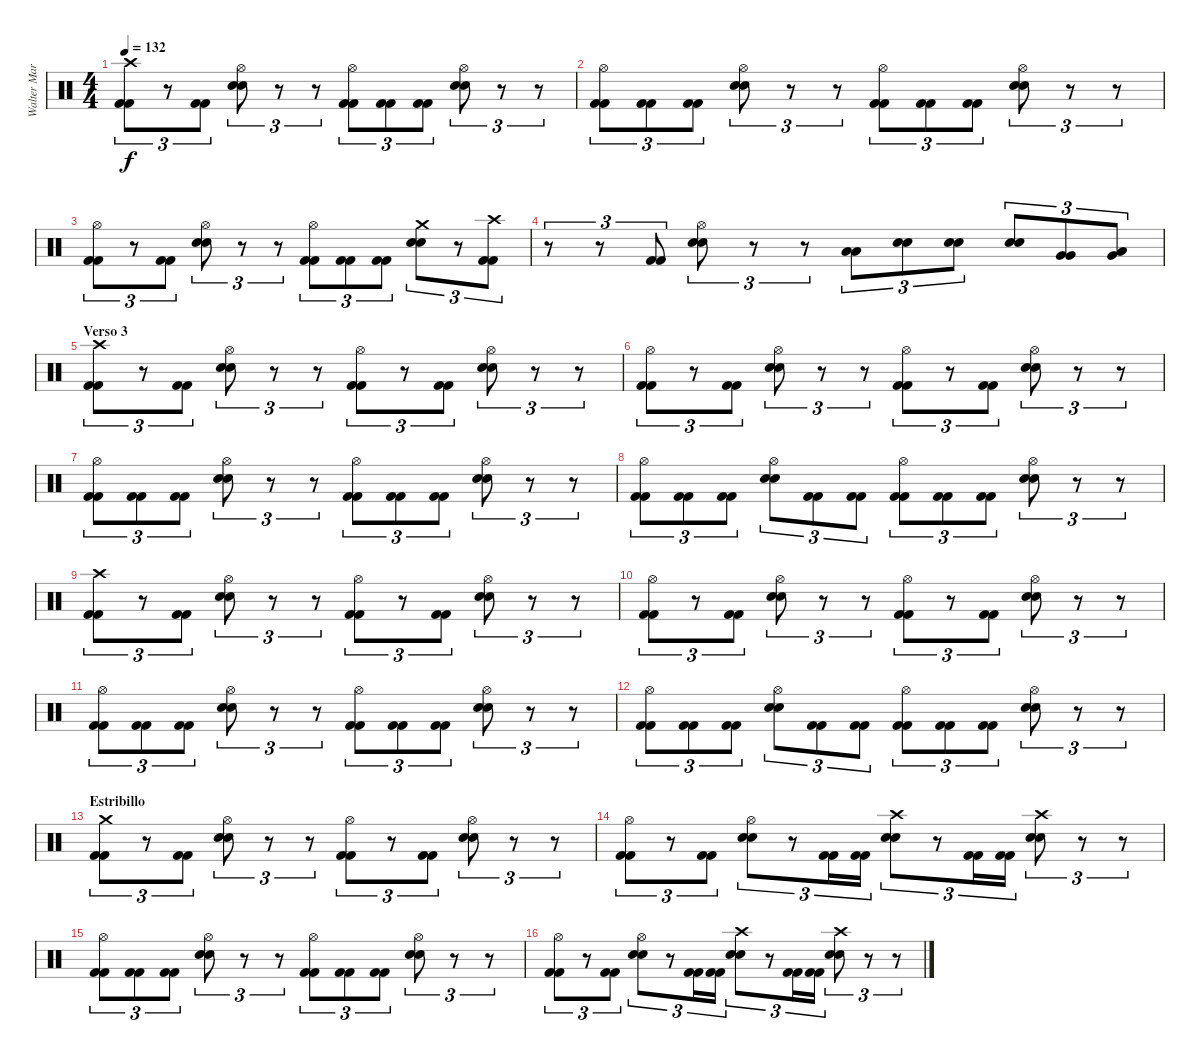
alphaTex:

\track ("Walter Martinez (bateria)" "Walter Mar") {instrument percussion}
\staff {score}
\articulation defaults
\ts (4 4)
\tempo 132
\clef neutral
\ks c
("Crash high (hit)" "Kick (hit) 2" "Kick (hit) 2").8{tu (3 2) dy f} r.8{tu (3 2)} ("Kick (hit) 2" "Kick (hit) 2").8{tu (3 2)} ("Hi-Hat (open)" "Snare (hit) 2" "Snare (hit) 2").8{tu (3 2)} r.8{tu (3 2)} r.8{tu (3 2)} ("Hi-Hat (open)" "Kick (hit) 2" "Kick (hit) 2").8{tu (3 2)} ("Kick (hit) 2" "Kick (hit) 2").8{tu (3 2)} ("Kick (hit) 2" "Kick (hit) 2").8{tu (3 2)} ("Hi-Hat (open)" "Snare (hit) 2" "Snare (hit) 2").8{tu (3 2)} r.8{tu (3 2)} r.8{tu (3 2)} |
("Hi-Hat (open)" "Kick (hit) 2" "Kick (hit) 2").8{tu (3 2)} ("Kick (hit) 2" "Kick (hit) 2").8{tu (3 2)} ("Kick (hit) 2" "Kick (hit) 2").8{tu (3 2)} ("Hi-Hat (open)" "Snare (hit) 2" "Snare (hit) 2").8{tu (3 2)} r.8{tu (3 2)} r.8{tu (3 2)} ("Hi-Hat (open)" "Kick (hit) 2" "Kick (hit) 2").8{tu (3 2)} ("Kick (hit) 2" "Kick (hit) 2").8{tu (3 2)} ("Kick (hit) 2" "Kick (hit) 2").8{tu (3 2)} ("Hi-Hat (open)" "Snare (hit) 2" "Snare (hit) 2").8{tu (3 2)} r.8{tu (3 2)} r.8{tu (3 2)} |
("Hi-Hat (open)" "Kick (hit) 2" "Kick (hit) 2").8{tu (3 2)} r.8{tu (3 2)} ("Kick (hit) 2" "Kick (hit) 2").8{tu (3 2)} ("Hi-Hat (open)" "Snare (hit) 2" "Snare (hit) 2").8{tu (3 2)} r.8{tu (3 2)} r.8{tu (3 2)} ("Hi-Hat (open)" "Kick (hit) 2" "Kick (hit) 2").8{tu (3 2)} ("Kick (hit) 2" "Kick (hit) 2").8{tu (3 2)} ("Kick (hit) 2" "Kick (hit) 2").8{tu (3 2)} ("Crash medium (hit)" "Snare (hit) 2" "Snare (hit) 2").8{tu (3 2)} r.8{tu (3 2)} ("Crash high (hit)" "Kick (hit) 2" "Kick (hit) 2").8{tu (3 2)} |
r.8{tu (3 2)} r.8{tu (3 2)} ("Kick (hit) 2" "Kick (hit) 2").8{tu (3 2)} ("Hi-Hat (open)" "Snare (hit) 2" "Snare (hit) 2").8{tu (3 2)} r.8{tu (3 2)} r.8{tu (3 2)} ("Low Tom (hit)" "Low Tom (hit)").8{tu (3 2)} ("Snare (hit) 2" "Snare (hit) 2").8{tu (3 2)} ("Snare (hit) 2" "Snare (hit) 2").8{tu (3 2)} ("Snare (hit) 2" "Snare (hit) 2").8{tu (3 2)} ("Very Low Tom (hit)" "Very Low Tom (hit)").8{tu (3 2)} ("Very Low Tom (hit)" "Low Floor Tom (hit)").8{tu (3 2)} |
\section ("" "Verso 3")
("Crash high (hit)" "Kick (hit) 2" "Kick (hit) 2").8{tu (3 2)} r.8{tu (3 2)} ("Kick (hit) 2" "Kick (hit) 2").8{tu (3 2)} ("Hi-Hat (open)" "Snare (hit) 2" "Snare (hit) 2").8{tu (3 2)} r.8{tu (3 2)} r.8{tu (3 2)} ("Hi-Hat (open)" "Kick (hit) 2" "Kick (hit) 2").8{tu (3 2)} r.8{tu (3 2)} ("Kick (hit) 2" "Kick (hit) 2").8{tu (3 2)} ("Hi-Hat (open)" "Snare (hit) 2" "Snare (hit) 2").8{tu (3 2)} r.8{tu (3 2)} r.8{tu (3 2)} |
("Hi-Hat (open)" "Kick (hit) 2" "Kick (hit) 2").8{tu (3 2)} r.8{tu (3 2)} ("Kick (hit) 2" "Kick (hit) 2").8{tu (3 2)} ("Hi-Hat (open)" "Snare (hit) 2" "Snare (hit) 2").8{tu (3 2)} r.8{tu (3 2)} r.8{tu (3 2)} ("Hi-Hat (open)" "Kick (hit) 2" "Kick (hit) 2").8{tu (3 2)} r.8{tu (3 2)} ("Kick (hit) 2" "Kick (hit) 2").8{tu (3 2)} ("Hi-Hat (open)" "Snare (hit) 2" "Snare (hit) 2").8{tu (3 2)} r.8{tu (3 2)} r.8{tu (3 2)} |
("Hi-Hat (open)" "Kick (hit) 2" "Kick (hit) 2").8{tu (3 2)} ("Kick (hit) 2" "Kick (hit) 2").8{tu (3 2)} ("Kick (hit) 2" "Kick (hit) 2").8{tu (3 2)} ("Hi-Hat (open)" "Snare (hit) 2" "Snare (hit) 2").8{tu (3 2)} r.8{tu (3 2)} r.8{tu (3 2)} ("Hi-Hat (open)" "Kick (hit) 2" "Kick (hit) 2").8{tu (3 2)} ("Kick (hit) 2" "Kick (hit) 2").8{tu (3 2)} ("Kick (hit) 2" "Kick (hit) 2").8{tu (3 2)} ("Hi-Hat (open)" "Snare (hit) 2" "Snare (hit) 2").8{tu (3 2)} r.8{tu (3 2)} r.8{tu (3 2)} |
("Hi-Hat (open)" "Kick (hit) 2" "Kick (hit) 2").8{tu (3 2)} ("Kick (hit) 2" "Kick (hit) 2").8{tu (3 2)} ("Kick (hit) 2" "Kick (hit) 2").8{tu (3 2)} ("Hi-Hat (open)" "Snare (hit) 2" "Snare (hit) 2").8{tu (3 2)} ("Kick (hit) 2" "Kick (hit) 2").8{tu (3 2)} ("Kick (hit) 2" "Kick (hit) 2").8{tu (3 2)} ("Hi-Hat (open)" "Kick (hit) 2" "Kick (hit) 2").8{tu (3 2)} ("Kick (hit) 2" "Kick (hit) 2").8{tu (3 2)} ("Kick (hit) 2" "Kick (hit) 2").8{tu (3 2)} ("Hi-Hat (open)" "Snare (hit) 2" "Snare (hit) 2").8{tu (3 2)} r.8{tu (3 2)} r.8{tu (3 2)} |
("Crash high (hit)" "Kick (hit) 2" "Kick (hit) 2").8{tu (3 2)} r.8{tu (3 2)} ("Kick (hit) 2" "Kick (hit) 2").8{tu (3 2)} ("Hi-Hat (open)" "Snare (hit) 2" "Snare (hit) 2").8{tu (3 2)} r.8{tu (3 2)} r.8{tu (3 2)} ("Hi-Hat (open)" "Kick (hit) 2" "Kick (hit) 2").8{tu (3 2)} r.8{tu (3 2)} ("Kick (hit) 2" "Kick (hit) 2").8{tu (3 2)} ("Hi-Hat (open)" "Snare (hit) 2" "Snare (hit) 2").8{tu (3 2)} r.8{tu (3 2)} r.8{tu (3 2)} |
("Hi-Hat (open)" "Kick (hit) 2" "Kick (hit) 2").8{tu (3 2)} r.8{tu (3 2)} ("Kick (hit) 2" "Kick (hit) 2").8{tu (3 2)} ("Hi-Hat (open)" "Snare (hit) 2" "Snare (hit) 2").8{tu (3 2)} r.8{tu (3 2)} r.8{tu (3 2)} ("Hi-Hat (open)" "Kick (hit) 2" "Kick (hit) 2").8{tu (3 2)} r.8{tu (3 2)} ("Kick (hit) 2" "Kick (hit) 2").8{tu (3 2)} ("Hi-Hat (open)" "Snare (hit) 2" "Snare (hit) 2").8{tu (3 2)} r.8{tu (3 2)} r.8{tu (3 2)} |
("Hi-Hat (open)" "Kick (hit) 2" "Kick (hit) 2").8{tu (3 2)} ("Kick (hit) 2" "Kick (hit) 2").8{tu (3 2)} ("Kick (hit) 2" "Kick (hit) 2").8{tu (3 2)} ("Hi-Hat (open)" "Snare (hit) 2" "Snare (hit) 2").8{tu (3 2)} r.8{tu (3 2)} r.8{tu (3 2)} ("Hi-Hat (open)" "Kick (hit) 2" "Kick (hit) 2").8{tu (3 2)} ("Kick (hit) 2" "Kick (hit) 2").8{tu (3 2)} ("Kick (hit) 2" "Kick (hit) 2").8{tu (3 2)} ("Hi-Hat (open)" "Snare (hit) 2" "Snare (hit) 2").8{tu (3 2)} r.8{tu (3 2)} r.8{tu (3 2)} |
("Hi-Hat (open)" "Kick (hit) 2" "Kick (hit) 2").8{tu (3 2)} ("Kick (hit) 2" "Kick (hit) 2").8{tu (3 2)} ("Kick (hit) 2" "Kick (hit) 2").8{tu (3 2)} ("Hi-Hat (open)" "Snare (hit) 2" "Snare (hit) 2").8{tu (3 2)} ("Kick (hit) 2" "Kick (hit) 2").8{tu (3 2)} ("Kick (hit) 2" "Kick (hit) 2").8{tu (3 2)} ("Hi-Hat (open)" "Kick (hit) 2" "Kick (hit) 2").8{tu (3 2)} ("Kick (hit) 2" "Kick (hit) 2").8{tu (3 2)} ("Kick (hit) 2" "Kick (hit) 2").8{tu (3 2)} ("Hi-Hat (open)" "Snare (hit) 2" "Snare (hit) 2").8{tu (3 2)} r.8{tu (3 2)} r.8{tu (3 2)} |
\section ("" "Estribillo")
("Crash medium (hit)" "Kick (hit) 2" "Kick (hit) 2").8{tu (3 2)} r.8{tu (3 2)} ("Kick (hit) 2" "Kick (hit) 2").8{tu (3 2)} ("Hi-Hat (open)" "Snare (hit) 2" "Snare (hit) 2").8{tu (3 2)} r.8{tu (3 2)} r.8{tu (3 2)} ("Hi-Hat (open)" "Kick (hit) 2" "Kick (hit) 2").8{tu (3 2)} r.8{tu (3 2)} ("Kick (hit) 2" "Kick (hit) 2").8{tu (3 2)} ("Hi-Hat (open)" "Snare (hit) 2" "Snare (hit) 2").8{tu (3 2)} r.8{tu (3 2)} r.8{tu (3 2)} |
("Hi-Hat (open)" "Kick (hit) 2" "Kick (hit) 2").8{tu (3 2)} r.8{tu (3 2)} ("Kick (hit) 2" "Kick (hit) 2").8{tu (3 2)} ("Hi-Hat (open)" "Snare (hit) 2" "Snare (hit) 2").8{tu (3 2)} r.8{tu (3 2)} ("Kick (hit) 2" "Kick (hit) 2").16{tu (3 2)} ("Kick (hit) 2" "Kick (hit) 2").16{tu (3 2)} ("Crash high (hit)" "Snare (hit) 2" "Snare (hit) 2").8{tu (3 2)} r.8{tu (3 2)} ("Kick (hit) 2" "Kick (hit) 2").16{tu (3 2)} ("Kick (hit) 2" "Kick (hit) 2").16{tu (3 2)} ("Crash high (hit)" "Snare (hit) 2" "Snare (hit) 2").8{tu (3 2)} r.8{tu (3 2)} r.8{tu (3 2)} |
("Hi-Hat (open)" "Kick (hit) 2" "Kick (hit) 2").8{tu (3 2)} ("Kick (hit) 2" "Kick (hit) 2").8{tu (3 2)} ("Kick (hit) 2" "Kick (hit) 2").8{tu (3 2)} ("Hi-Hat (open)" "Snare (hit) 2" "Snare (hit) 2").8{tu (3 2)} r.8{tu (3 2)} r.8{tu (3 2)} ("Hi-Hat (open)" "Kick (hit) 2" "Kick (hit) 2").8{tu (3 2)} ("Kick (hit) 2" "Kick (hit) 2").8{tu (3 2)} ("Kick (hit) 2" "Kick (hit) 2").8{tu (3 2)} ("Hi-Hat (open)" "Snare (hit) 2" "Snare (hit) 2").8{tu (3 2)} r.8{tu (3 2)} r.8{tu (3 2)} |
("Hi-Hat (open)" "Kick (hit) 2" "Kick (hit) 2").8{tu (3 2)} r.8{tu (3 2)} ("Kick (hit) 2" "Kick (hit) 2").8{tu (3 2)} ("Hi-Hat (open)" "Snare (hit) 2" "Snare (hit) 2").8{tu (3 2)} r.8{tu (3 2)} ("Kick (hit) 2" "Kick (hit) 2").16{tu (3 2)} ("Kick (hit) 2" "Kick (hit) 2").16{tu (3 2)} ("Crash high (hit)" "Snare (hit) 2" "Snare (hit) 2").8{tu (3 2)} r.8{tu (3 2)} ("Kick (hit) 2" "Kick (hit) 2").16{tu (3 2)} ("Kick (hit) 2" "Kick (hit) 2").16{tu (3 2)} ("Crash high (hit)" "Snare (hit) 2" "Snare (hit) 2").8{tu (3 2)} r.8{tu (3 2)} r.8{tu (3 2)}
